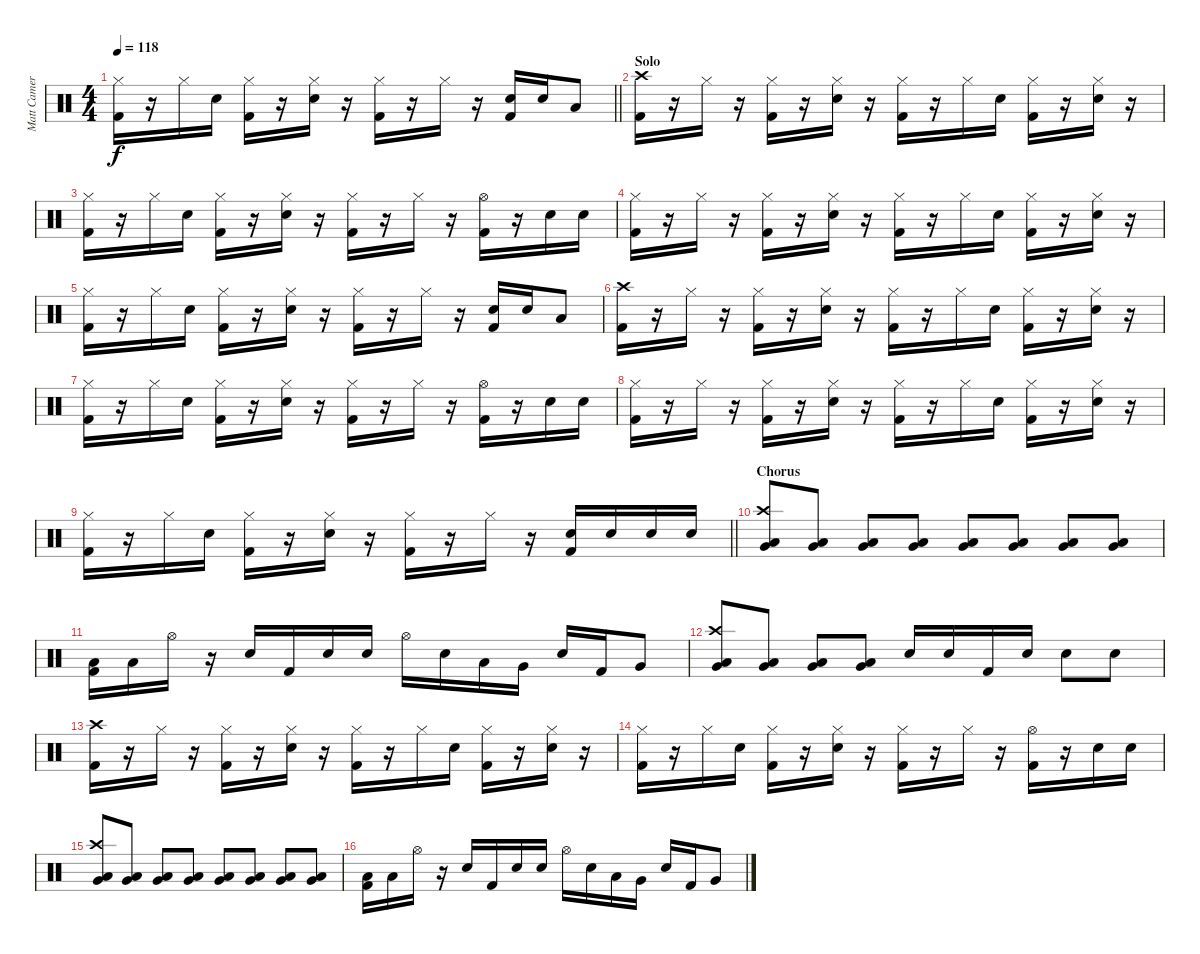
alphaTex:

\track ("Matt Cameron" "Matt Camer") {instrument percussion}
\staff {score}
\articulation defaults
\ts (4 4)
\tempo 118
\clef neutral
\barLineRight lightlight
\ks c
("Hi-Hat (closed)" "Kick (hit) 2").16{dy f} r.16 "Hi-Hat (closed)".16 "Snare (hit) 2".16 ("Hi-Hat (closed)" "Kick (hit) 2").16 r.16 ("Hi-Hat (closed)" "Snare (hit) 2").16 r.16 ("Hi-Hat (closed)" "Kick (hit) 2").16 r.16 "Hi-Hat (closed)".16 r.16 ("Snare (hit) 2" "Kick (hit) 2").16 "Snare (hit) 2".16 "Low Tom (hit)".8 |
\section ("" "Solo")
("Crash high (hit)" "Kick (hit) 2").16 r.16 "Hi-Hat (closed)".16 r.16 ("Hi-Hat (closed)" "Kick (hit) 2").16 r.16 ("Hi-Hat (closed)" "Snare (hit) 2").16 r.16 ("Hi-Hat (closed)" "Kick (hit) 2").16 r.16 "Hi-Hat (closed)".16 "Snare (hit) 2".16 ("Hi-Hat (closed)" "Kick (hit) 2").16 r.16 ("Hi-Hat (closed)" "Snare (hit) 2").16 r.16 |
("Hi-Hat (closed)" "Kick (hit) 2").16 r.16 "Hi-Hat (closed)".16 "Snare (hit) 2".16 ("Hi-Hat (closed)" "Kick (hit) 2").16 r.16 ("Hi-Hat (closed)" "Snare (hit) 2").16 r.16 ("Hi-Hat (closed)" "Kick (hit) 2").16 r.16 "Hi-Hat (closed)".16 r.16 ("Hi-Hat (open)" "Kick (hit) 2").16 r.16 "Snare (hit) 2".16 "Snare (hit) 2".16 |
("Hi-Hat (closed)" "Kick (hit) 2").16 r.16 "Hi-Hat (closed)".16 r.16 ("Hi-Hat (closed)" "Kick (hit) 2").16 r.16 ("Hi-Hat (closed)" "Snare (hit) 2").16 r.16 ("Hi-Hat (closed)" "Kick (hit) 2").16 r.16 "Hi-Hat (closed)".16 "Snare (hit) 2".16 ("Hi-Hat (closed)" "Kick (hit) 2").16 r.16 ("Hi-Hat (closed)" "Snare (hit) 2").16 r.16 |
("Hi-Hat (closed)" "Kick (hit) 2").16 r.16 "Hi-Hat (closed)".16 "Snare (hit) 2".16 ("Hi-Hat (closed)" "Kick (hit) 2").16 r.16 ("Hi-Hat (closed)" "Snare (hit) 2").16 r.16 ("Hi-Hat (closed)" "Kick (hit) 2").16 r.16 "Hi-Hat (closed)".16 r.16 ("Snare (hit) 2" "Kick (hit) 2").16 "Snare (hit) 2".16 "Low Tom (hit)".8 |
("Crash high (hit)" "Kick (hit) 2").16 r.16 "Hi-Hat (closed)".16 r.16 ("Hi-Hat (closed)" "Kick (hit) 2").16 r.16 ("Hi-Hat (closed)" "Snare (hit) 2").16 r.16 ("Hi-Hat (closed)" "Kick (hit) 2").16 r.16 "Hi-Hat (closed)".16 "Snare (hit) 2".16 ("Hi-Hat (closed)" "Kick (hit) 2").16 r.16 ("Hi-Hat (closed)" "Snare (hit) 2").16 r.16 |
("Hi-Hat (closed)" "Kick (hit) 2").16 r.16 "Hi-Hat (closed)".16 "Snare (hit) 2".16 ("Hi-Hat (closed)" "Kick (hit) 2").16 r.16 ("Hi-Hat (closed)" "Snare (hit) 2").16 r.16 ("Hi-Hat (closed)" "Kick (hit) 2").16 r.16 "Hi-Hat (closed)".16 r.16 ("Hi-Hat (open)" "Kick (hit) 2").16 r.16 "Snare (hit) 2".16 "Snare (hit) 2".16 |
("Hi-Hat (closed)" "Kick (hit) 2").16 r.16 "Hi-Hat (closed)".16 r.16 ("Hi-Hat (closed)" "Kick (hit) 2").16 r.16 ("Hi-Hat (closed)" "Snare (hit) 2").16 r.16 ("Hi-Hat (closed)" "Kick (hit) 2").16 r.16 "Hi-Hat (closed)".16 "Snare (hit) 2".16 ("Hi-Hat (closed)" "Kick (hit) 2").16 r.16 ("Hi-Hat (closed)" "Snare (hit) 2").16 r.16 |
\barLineRight lightlight
("Hi-Hat (closed)" "Kick (hit) 2").16 r.16 "Hi-Hat (closed)".16 "Snare (hit) 2".16 ("Hi-Hat (closed)" "Kick (hit) 2").16 r.16 ("Hi-Hat (closed)" "Snare (hit) 2").16 r.16 ("Hi-Hat (closed)" "Kick (hit) 2").16 r.16 "Hi-Hat (closed)".16 r.16 ("Snare (hit) 2" "Kick (hit) 2").16 "Snare (hit) 2".16 "Snare (hit) 2".16 "Snare (hit) 2".16 |
\section ("" "Chorus")
("Crash high (hit)" "Very Low Tom (hit)" "Low Tom (hit)").8 ("Very Low Tom (hit)" "Low Tom (hit)").8 ("Very Low Tom (hit)" "Low Tom (hit)").8 ("Very Low Tom (hit)" "Low Tom (hit)").8 ("Very Low Tom (hit)" "Low Tom (hit)").8 ("Very Low Tom (hit)" "Low Tom (hit)").8 ("Very Low Tom (hit)" "Low Tom (hit)").8 ("Very Low Tom (hit)" "Low Tom (hit)").8 |
("Low Tom (hit)" "Kick (hit) 2").16 "Low Floor Tom (hit)".16 "Hi-Hat (open)".16 r.16 "Snare (hit) 2".16 "Kick (hit) 2".16 "Snare (hit) 2".16 "Snare (hit) 2".16 "Hi-Hat (open)".16 "Snare (hit) 2".16 "Low Tom (hit)".16 "Very Low Tom (hit)".16 "Snare (hit) 2".16 "Kick (hit) 2".16 "Very Low Tom (hit)".8 |
("Crash high (hit)" "Very Low Tom (hit)" "Low Tom (hit)").8 ("Very Low Tom (hit)" "Low Tom (hit)").8 ("Very Low Tom (hit)" "Low Tom (hit)").8 ("Very Low Tom (hit)" "Low Tom (hit)").8 "Snare (hit) 2".16 "Snare (hit) 2".16 "Kick (hit) 2".16 "Snare (hit) 2".16 "Snare (hit) 2".8 "Snare (hit) 2".8 |
("Crash high (hit)" "Kick (hit) 2").16 r.16 "Hi-Hat (closed)".16 r.16 ("Hi-Hat (closed)" "Kick (hit) 2").16 r.16 ("Hi-Hat (closed)" "Snare (hit) 2").16 r.16 ("Hi-Hat (closed)" "Kick (hit) 2").16 r.16 "Hi-Hat (closed)".16 "Snare (hit) 2".16 ("Hi-Hat (closed)" "Kick (hit) 2").16 r.16 ("Hi-Hat (closed)" "Snare (hit) 2").16 r.16 |
("Hi-Hat (closed)" "Kick (hit) 2").16 r.16 "Hi-Hat (closed)".16 "Snare (hit) 2".16 ("Hi-Hat (closed)" "Kick (hit) 2").16 r.16 ("Hi-Hat (closed)" "Snare (hit) 2").16 r.16 ("Hi-Hat (closed)" "Kick (hit) 2").16 r.16 "Hi-Hat (closed)".16 r.16 ("Hi-Hat (open)" "Kick (hit) 2").16 r.16 "Snare (hit) 2".16 "Snare (hit) 2".16 |
("Crash high (hit)" "Very Low Tom (hit)" "Low Tom (hit)").8 ("Very Low Tom (hit)" "Low Tom (hit)").8 ("Very Low Tom (hit)" "Low Tom (hit)").8 ("Very Low Tom (hit)" "Low Tom (hit)").8 ("Very Low Tom (hit)" "Low Tom (hit)").8 ("Very Low Tom (hit)" "Low Tom (hit)").8 ("Very Low Tom (hit)" "Low Tom (hit)").8 ("Very Low Tom (hit)" "Low Tom (hit)").8 |
("Low Tom (hit)" "Kick (hit) 2").16 "Low Floor Tom (hit)".16 "Hi-Hat (open)".16 r.16 "Snare (hit) 2".16 "Kick (hit) 2".16 "Snare (hit) 2".16 "Snare (hit) 2".16 "Hi-Hat (open)".16 "Snare (hit) 2".16 "Low Tom (hit)".16 "Very Low Tom (hit)".16 "Snare (hit) 2".16 "Kick (hit) 2".16 "Very Low Tom (hit)".8
